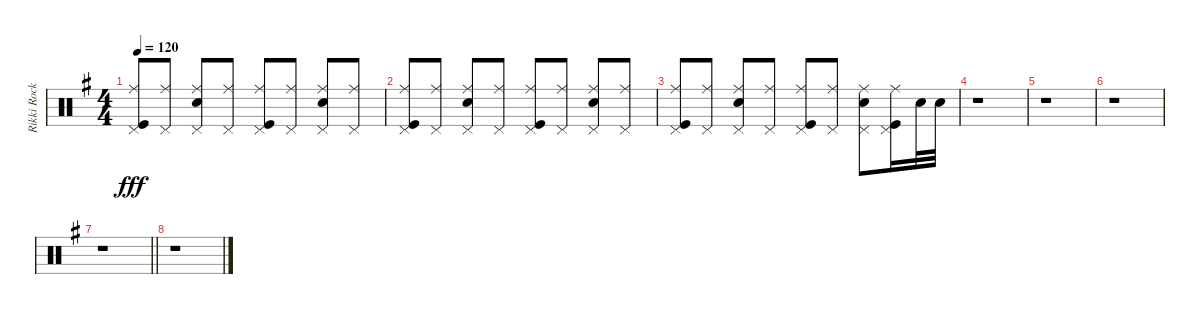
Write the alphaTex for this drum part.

\track ("Rikki Rocket: Drums" "Rikki Rock") {instrument percussion}
\staff {score}
\articulation defaults
\ts (4 4)
\tempo 120
\clef neutral
\ks g
("Ride (middle)" "Pedal Hi-Hat (hit)" "Kick (hit)").8{dy fff} ("Ride (middle)" "Pedal Hi-Hat (hit)").8 ("Ride (middle)" "Pedal Hi-Hat (hit)" "Electric Snare (hit)").8 ("Ride (middle)" "Pedal Hi-Hat (hit)").8 ("Ride (middle)" "Pedal Hi-Hat (hit)" "Kick (hit)").8 ("Ride (middle)" "Pedal Hi-Hat (hit)").8 ("Ride (middle)" "Pedal Hi-Hat (hit)" "Electric Snare (hit)").8 ("Ride (middle)" "Pedal Hi-Hat (hit)").8 |
("Ride (middle)" "Pedal Hi-Hat (hit)" "Kick (hit)").8{volume 14} ("Ride (middle)" "Pedal Hi-Hat (hit)").8{volume 12} ("Ride (middle)" "Pedal Hi-Hat (hit)" "Electric Snare (hit)").8{volume 11} ("Ride (middle)" "Pedal Hi-Hat (hit)").8{volume 10} ("Ride (middle)" "Pedal Hi-Hat (hit)" "Kick (hit)").8{volume 9} ("Ride (middle)" "Pedal Hi-Hat (hit)").8{volume 8} ("Ride (middle)" "Pedal Hi-Hat (hit)" "Electric Snare (hit)").8{volume 7} ("Ride (middle)" "Pedal Hi-Hat (hit)").8{volume 6} |
("Ride (middle)" "Pedal Hi-Hat (hit)" "Kick (hit)").8{volume 4} ("Ride (middle)" "Pedal Hi-Hat (hit)").8{volume 3} ("Ride (middle)" "Pedal Hi-Hat (hit)" "Electric Snare (hit)").8{volume 2} ("Ride (middle)" "Pedal Hi-Hat (hit)").8{volume 1} ("Ride (middle)" "Pedal Hi-Hat (hit)" "Kick (hit)").8{volume 0} ("Ride (middle)" "Pedal Hi-Hat (hit)").8 ("Ride (middle)" "Pedal Hi-Hat (hit)" "Electric Snare (hit)").8 ("Ride (middle)" "Pedal Hi-Hat (hit)" "Kick (hit)").16 "Electric Snare (hit)".32 "Electric Snare (hit)".32 |
r.1 |
r.1 |
r.1 |
\barLineRight lightlight
r.1 |
r.1
